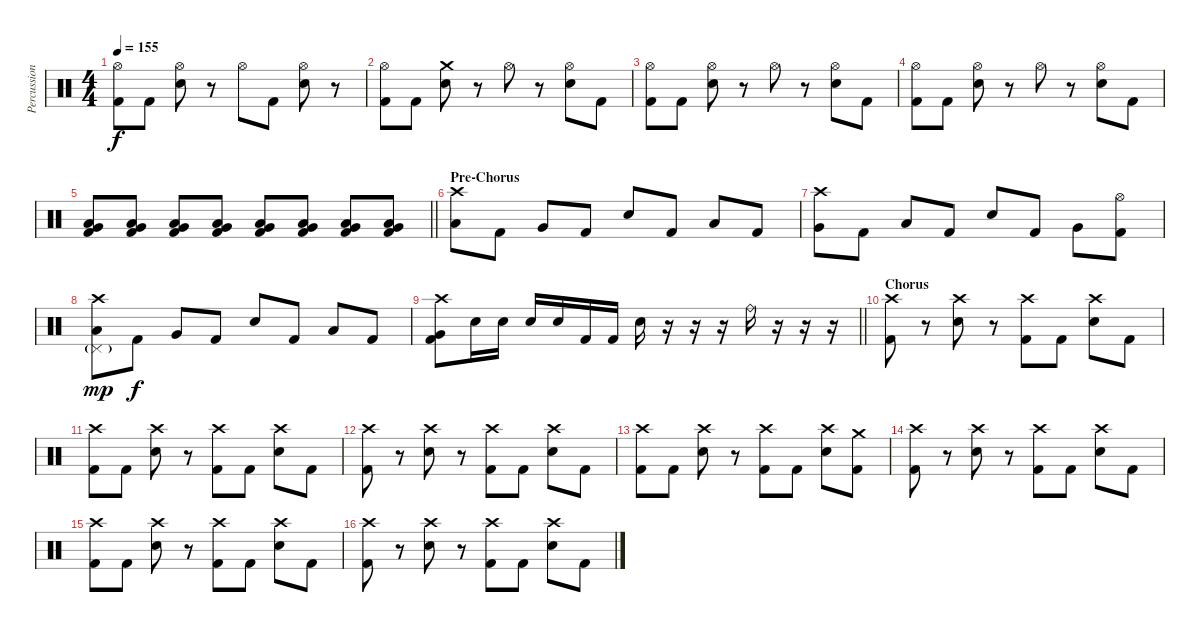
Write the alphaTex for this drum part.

\track ("Percussion" "Percussion") {instrument percussion}
\staff {score}
\articulation defaults
\ts (4 4)
\tempo 155
\clef neutral
\ks c
("Hi-Hat (open)" "Kick (hit) 2").8{dy f} "Kick (hit) 2".8 ("Hi-Hat (open)" "Snare (hit) 2").8 r.8 "Hi-Hat (open)".8 "Kick (hit) 2".8 ("Hi-Hat (open)" "Snare (hit) 2").8 r.8 |
("Hi-Hat (open)" "Kick (hit) 2").8 "Kick (hit) 2".8 ("Crash medium (hit)" "Snare (hit) 2").8 r.8 "Hi-Hat (open)".8 r.8 ("Hi-Hat (open)" "Snare (hit) 2").8 "Kick (hit) 2".8 |
("Hi-Hat (open)" "Kick (hit) 2").8 "Kick (hit) 2".8 ("Hi-Hat (open)" "Snare (hit) 2").8 r.8 "Hi-Hat (open)".8 r.8 ("Hi-Hat (open)" "Snare (hit) 2").8 "Kick (hit) 2".8 |
("Hi-Hat (open)" "Kick (hit) 2").8 "Kick (hit) 2".8 ("Hi-Hat (open)" "Snare (hit) 2").8 r.8 "Hi-Hat (open)".8 r.8 ("Hi-Hat (open)" "Snare (hit) 2").8 "Kick (hit) 2".8 |
\barLineRight lightlight
("Low Floor Tom (hit)" "Very Low Tom (hit)" "Kick (hit) 2").8 ("Low Floor Tom (hit)" "Very Low Tom (hit)" "Kick (hit) 2").8 ("Low Floor Tom (hit)" "Very Low Tom (hit)" "Kick (hit) 2").8 ("Low Floor Tom (hit)" "Very Low Tom (hit)" "Kick (hit) 2").8 ("Low Floor Tom (hit)" "Very Low Tom (hit)" "Kick (hit) 2").8 ("Low Floor Tom (hit)" "Very Low Tom (hit)" "Kick (hit) 2").8 ("Low Floor Tom (hit)" "Very Low Tom (hit)" "Kick (hit) 2").8 ("Low Floor Tom (hit)" "Very Low Tom (hit)" "Kick (hit) 2").8 |
\section ("" "Pre-Chorus")
("Crash high (hit)" "Low Tom (hit)").8 "Kick (hit) 2".8 "Very Low Tom (hit)".8 "Kick (hit) 2".8 "Snare (hit) 2".8 "Kick (hit) 2".8 "Low Tom (hit)".8 "Kick (hit) 2".8 |
("Crash high (hit)" "Very Low Tom (hit)").8 "Kick (hit) 2".8 "Low Floor Tom (hit)".8 "Kick (hit) 2".8 "Snare (hit) 2".8 "Kick (hit) 2".8 "Very Low Tom (hit)".8 ("Hi-Hat (open)" "Kick (hit) 2").8 |
("Pedal Hi-Hat (hit)"{g} "Crash high (hit)" "Low Tom (hit)").8{dy mp} "Kick (hit) 2".8{dy f} "Very Low Tom (hit)".8 "Kick (hit) 2".8 "Snare (hit) 2".8 "Kick (hit) 2".8 "Low Tom (hit)".8 "Kick (hit) 2".8 |
\barLineRight lightlight
("Crash high (hit)" "Very Low Tom (hit)" "Kick (hit) 2").8 "Snare (hit) 2".16 "Snare (hit) 2".16 "Snare (hit) 2".16 "Snare (hit) 2".16 "Kick (hit) 2".16 "Kick (hit) 2".16 "Snare (hit) 2".16 r.16 r.16 r.16 "Ride (bell)".16 r.16 r.16 r.16 |
\section ("" "Chorus")
("Crash high (hit)" "Kick (hit) 2").8 r.8 ("Crash high (hit)" "Snare (hit) 2").8 r.8 ("Crash high (hit)" "Kick (hit) 2").8 "Kick (hit) 2".8 ("Crash high (hit)" "Snare (hit) 2").8 "Kick (hit) 2".8 |
("Crash high (hit)" "Kick (hit) 2").8 "Kick (hit) 2".8 ("Crash high (hit)" "Snare (hit) 2").8 r.8 ("Crash high (hit)" "Kick (hit) 2").8 "Kick (hit) 2".8 ("Crash high (hit)" "Snare (hit) 2").8 "Kick (hit) 2".8 |
("Crash high (hit)" "Kick (hit) 2").8 r.8 ("Crash high (hit)" "Snare (hit) 2").8 r.8 ("Crash high (hit)" "Kick (hit) 2").8 "Kick (hit) 2".8 ("Crash high (hit)" "Snare (hit) 2").8 "Kick (hit) 2".8 |
("Crash high (hit)" "Kick (hit) 2").8 "Kick (hit) 2".8 ("Crash high (hit)" "Snare (hit) 2").8 r.8 ("Crash high (hit)" "Kick (hit) 2").8 "Kick (hit) 2".8 ("Crash high (hit)" "Snare (hit) 2").8 ("Crash medium (hit)" "Kick (hit) 2").8 |
("Crash high (hit)" "Kick (hit) 2").8 r.8 ("Crash high (hit)" "Snare (hit) 2").8 r.8 ("Crash high (hit)" "Kick (hit) 2").8 "Kick (hit) 2".8 ("Crash high (hit)" "Snare (hit) 2").8 "Kick (hit) 2".8 |
("Crash high (hit)" "Kick (hit) 2").8 "Kick (hit) 2".8 ("Crash high (hit)" "Snare (hit) 2").8 r.8 ("Crash high (hit)" "Kick (hit) 2").8 "Kick (hit) 2".8 ("Crash high (hit)" "Snare (hit) 2").8 "Kick (hit) 2".8 |
("Crash high (hit)" "Kick (hit) 2").8 r.8 ("Crash high (hit)" "Snare (hit) 2").8 r.8 ("Crash high (hit)" "Kick (hit) 2").8 "Kick (hit) 2".8 ("Crash high (hit)" "Snare (hit) 2").8 "Kick (hit) 2".8
